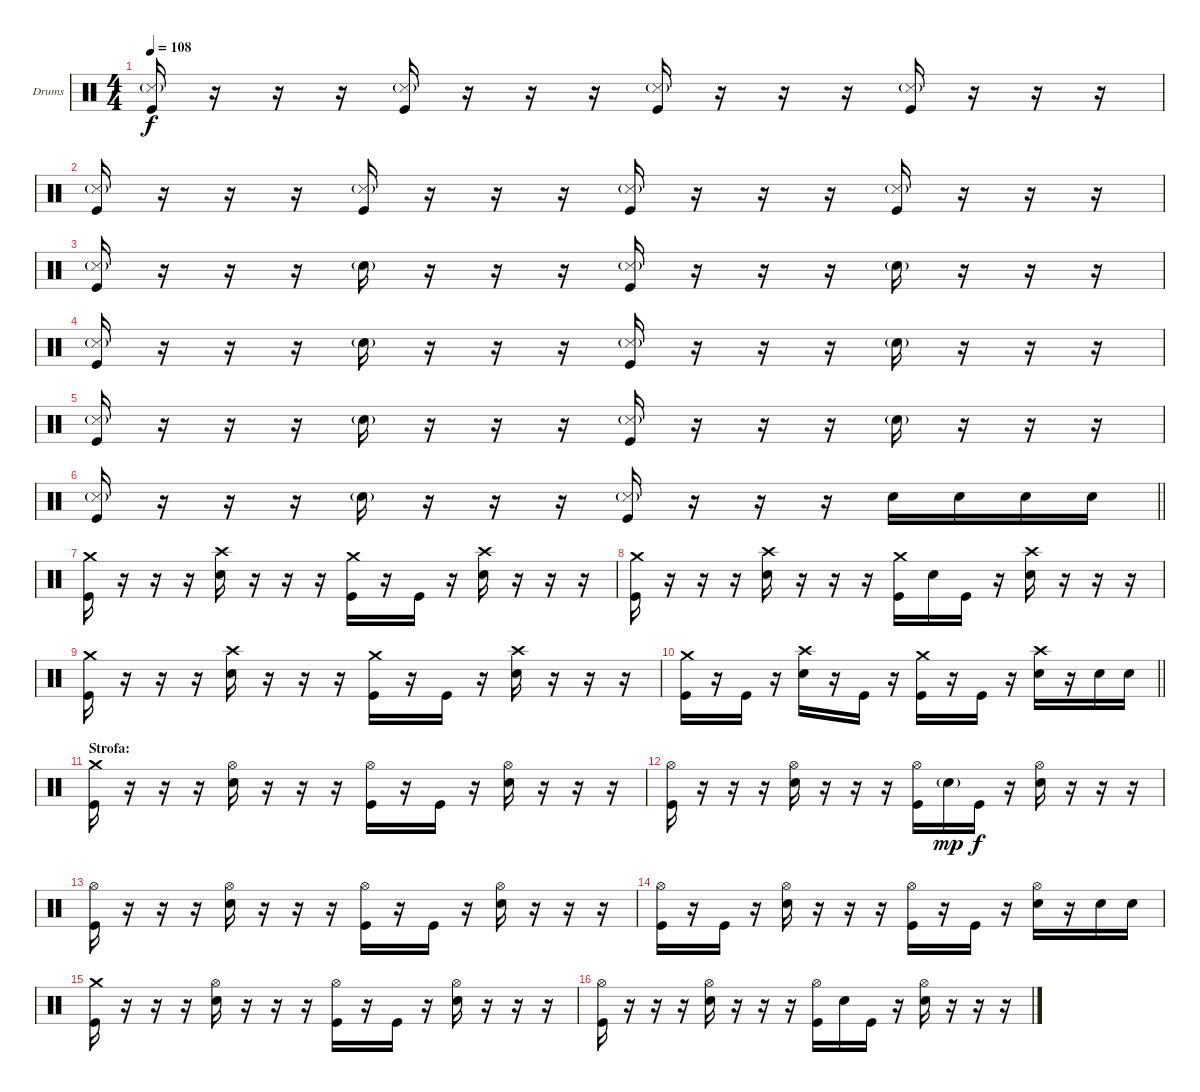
\bracketExtendMode groupsimilarinstruments
\firstSystemTrackNameOrientation horizontal
\otherSystemsTrackNameOrientation horizontal
\track ("Drumkit" "Drums") {instrument percussion}
\staff {score}
\articulation defaults
\ts (4 4)
\tempo 108
\clef neutral
\ks c
("Kick (hit)" "Snare (side stick) 3"{g}).16{dy f} r.16 r.16 r.16 ("Kick (hit)" "Snare (side stick) 3"{g}).16 r.16 r.16 r.16 ("Kick (hit)" "Snare (side stick) 3"{g}).16 r.16 r.16 r.16 ("Kick (hit)" "Snare (side stick) 3"{g}).16 r.16 r.16 r.16 |
("Kick (hit)" "Snare (side stick) 3"{g}).16 r.16 r.16 r.16 ("Kick (hit)" "Snare (side stick) 3"{g}).16 r.16 r.16 r.16 ("Kick (hit)" "Snare (side stick) 3"{g}).16 r.16 r.16 r.16 ("Kick (hit)" "Snare (side stick) 3"{g}).16 r.16 r.16 r.16 |
("Kick (hit)" "Snare (side stick) 3"{g}).16 r.16 r.16 r.16 "Snare (hit) 2"{g}.16 r.16 r.16 r.16 ("Kick (hit)" "Snare (side stick) 3"{g}).16 r.16 r.16 r.16 "Snare (hit) 2"{g}.16 r.16 r.16 r.16 |
("Kick (hit)" "Snare (side stick) 3"{g}).16 r.16 r.16 r.16 "Snare (hit) 2"{g}.16 r.16 r.16 r.16 ("Kick (hit)" "Snare (side stick) 3"{g}).16 r.16 r.16 r.16 "Snare (hit) 2"{g}.16 r.16 r.16 r.16 |
("Kick (hit)" "Snare (side stick) 3"{g}).16 r.16 r.16 r.16 "Snare (hit) 2"{g}.16 r.16 r.16 r.16 ("Kick (hit)" "Snare (side stick) 3"{g}).16 r.16 r.16 r.16 "Snare (hit) 2"{g}.16 r.16 r.16 r.16 |
\barLineRight lightlight
("Kick (hit)" "Snare (side stick) 3"{g}).16 r.16 r.16 r.16 "Snare (hit) 2"{g}.16 r.16 r.16 r.16 ("Kick (hit)" "Snare (side stick) 3"{g}).16 r.16 r.16 r.16 "Snare (hit) 2".16 "Snare (hit) 2".16 "Snare (hit) 2".16 "Snare (hit) 2".16 |
\section ("" "")
("Kick (hit)" "Crash medium (hit)").16 r.16 r.16 r.16 ("Snare (hit) 2" "Crash high (hit)").16 r.16 r.16 r.16 ("Kick (hit)" "Crash medium (hit)").16 r.16 "Kick (hit)".16 r.16 ("Snare (hit) 2" "Crash high (hit)").16 r.16 r.16 r.16 |
("Kick (hit)" "Crash medium (hit)").16 r.16 r.16 r.16 ("Snare (hit) 2" "Crash high (hit)").16 r.16 r.16 r.16 ("Kick (hit)" "Crash medium (hit)").16 "Snare (hit) 2".16 "Kick (hit)".16 r.16 ("Snare (hit) 2" "Crash high (hit)").16 r.16 r.16 r.16 |
("Kick (hit)" "Crash medium (hit)").16 r.16 r.16 r.16 ("Snare (hit) 2" "Crash high (hit)").16 r.16 r.16 r.16 ("Kick (hit)" "Crash medium (hit)").16 r.16 "Kick (hit)".16 r.16 ("Snare (hit) 2" "Crash high (hit)").16 r.16 r.16 r.16 |
\barLineRight lightlight
("Kick (hit)" "Crash medium (hit)").16 r.16 "Kick (hit)".16 r.16 ("Snare (hit) 2" "Crash high (hit)").16 r.16 "Kick (hit)".16 r.16 ("Kick (hit)" "Crash medium (hit)").16 r.16 "Kick (hit)".16 r.16 ("Snare (hit) 2" "Crash high (hit)").16 r.16 "Snare (hit) 2".16 "Snare (hit) 2".16 |
\section ("" "Strofa:")
("Kick (hit)" "Crash medium (hit)").16 r.16 r.16 r.16 ("Snare (hit) 2" "Hi-Hat (open)").16 r.16 r.16 r.16 ("Kick (hit)" "Hi-Hat (open)").16 r.16 "Kick (hit)".16 r.16 ("Snare (hit) 2" "Hi-Hat (open)").16 r.16 r.16 r.16 |
("Kick (hit)" "Hi-Hat (open)").16 r.16 r.16 r.16 ("Snare (hit) 2" "Hi-Hat (open)").16 r.16 r.16 r.16 ("Kick (hit)" "Hi-Hat (open)").16 "Snare (hit) 2"{g}.16{dy mp} "Kick (hit)".16{dy f} r.16 ("Snare (hit) 2" "Hi-Hat (open)").16 r.16 r.16 r.16 |
("Kick (hit)" "Hi-Hat (open)").16 r.16 r.16 r.16 ("Snare (hit) 2" "Hi-Hat (open)").16 r.16 r.16 r.16 ("Kick (hit)" "Hi-Hat (open)").16 r.16 "Kick (hit)".16 r.16 ("Snare (hit) 2" "Hi-Hat (open)").16 r.16 r.16 r.16 |
("Kick (hit)" "Hi-Hat (open)").16 r.16 "Kick (hit)".16 r.16 ("Snare (hit) 2" "Hi-Hat (open)").16 r.16 r.16 r.16 ("Kick (hit)" "Hi-Hat (open)").16 r.16 "Kick (hit)".16 r.16 ("Snare (hit) 2" "Hi-Hat (open)").16 r.16 "Snare (hit) 2".16 "Snare (hit) 2".16 |
("Kick (hit)" "Crash medium (hit)").16 r.16 r.16 r.16 ("Snare (hit) 2" "Hi-Hat (open)").16 r.16 r.16 r.16 ("Kick (hit)" "Hi-Hat (open)").16 r.16 "Kick (hit)".16 r.16 ("Snare (hit) 2" "Hi-Hat (open)").16 r.16 r.16 r.16 |
("Kick (hit)" "Hi-Hat (open)").16 r.16 r.16 r.16 ("Snare (hit) 2" "Hi-Hat (open)").16 r.16 r.16 r.16 ("Kick (hit)" "Hi-Hat (open)").16 "Snare (hit) 2".16 "Kick (hit)".16 r.16 ("Snare (hit) 2" "Hi-Hat (open)").16 r.16 r.16 r.16
